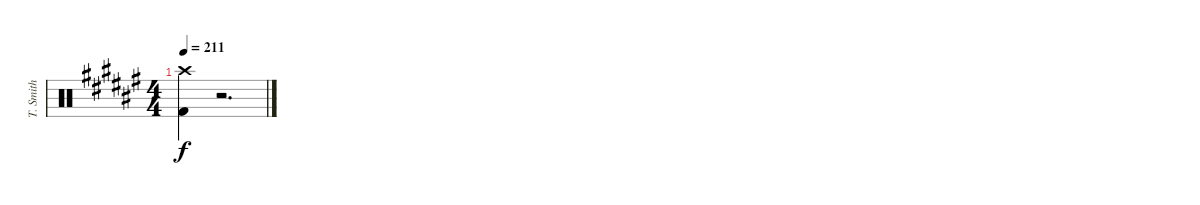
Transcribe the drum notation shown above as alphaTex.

\track ("T. Smith" "T. Smith") {instrument percussion}
\staff {score}
\articulation defaults
\ts (4 4)
\tempo 211
\clef neutral
\ks d#minor
("Crash high (hit)" "Kick (hit) 2").4{dy f} r.2{d}
